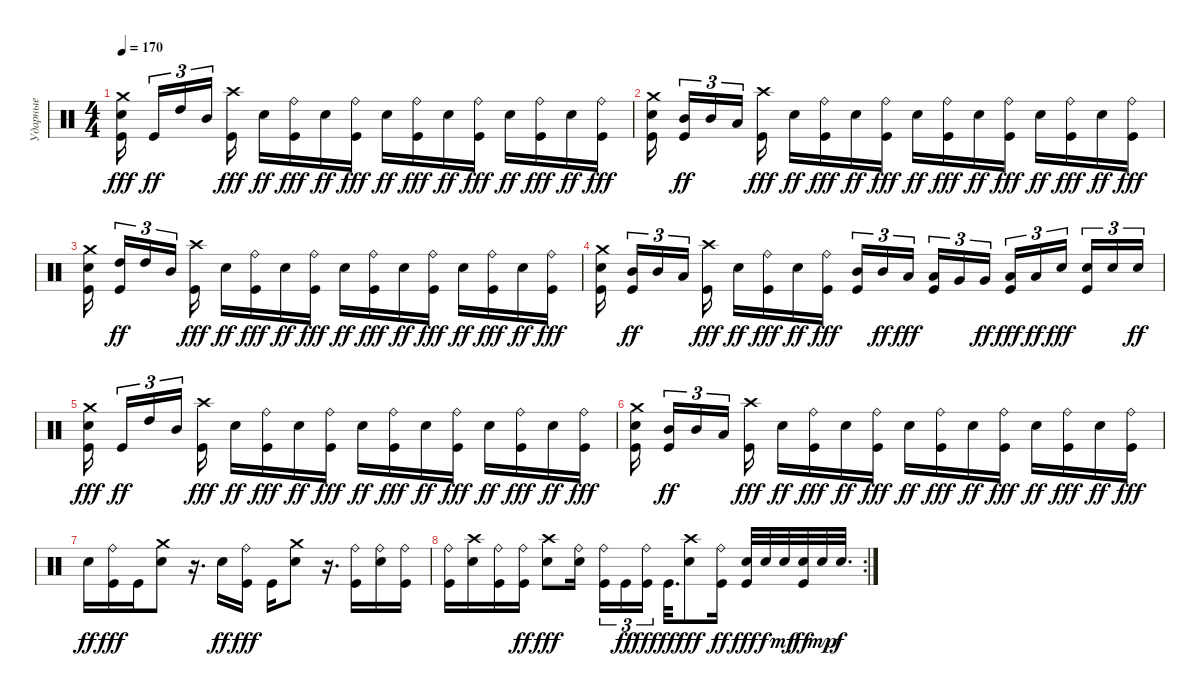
\track ("Ударные" "Ударные") {instrument percussion}
\staff {score}
\articulation defaults
\ts (4 4)
\tempo 170
\clef neutral
\ks c
("Crash medium (hit)" "Electric Snare (hit)" "Kick (hit)").16{dy fff beam splitsecondary} "Kick (hit)".16{tu (3 2) dy ff} "High Tom (hit)".16{tu (3 2)} "Mid Tom (hit)".16{tu (3 2) beam splitsecondary} ("Crash high (hit)" "Kick (hit)").16{dy fff} "Electric Snare (hit)".16{dy ff} ("Ride (bell)" "Kick (hit)").16{dy fff} "Electric Snare (hit)".16{dy ff} ("Ride (bell)" "Kick (hit)").16{dy fff} "Electric Snare (hit)".16{dy ff} ("Ride (bell)" "Kick (hit)").16{dy fff} "Electric Snare (hit)".16{dy ff} ("Ride (bell)" "Kick (hit)").16{dy fff} "Electric Snare (hit)".16{dy ff} ("Ride (bell)" "Kick (hit)").16{dy fff} "Electric Snare (hit)".16{dy ff} ("Ride (bell)" "Kick (hit)").16{dy fff} |
("Crash medium (hit)" "Electric Snare (hit)" "Kick (hit)").16{beam splitsecondary} ("Mid Tom (hit)" "Kick (hit)").16{tu (3 2) dy ff} "Mid Tom (hit)".16{tu (3 2)} "Low Tom (hit)".16{tu (3 2) beam splitsecondary} ("Crash high (hit)" "Kick (hit)").16{dy fff} "Electric Snare (hit)".16{dy ff} ("Ride (bell)" "Kick (hit)").16{dy fff} "Electric Snare (hit)".16{dy ff} ("Ride (bell)" "Kick (hit)").16{dy fff} "Electric Snare (hit)".16{dy ff} ("Ride (bell)" "Kick (hit)").16{dy fff} "Electric Snare (hit)".16{dy ff} ("Ride (bell)" "Kick (hit)").16{dy fff} "Electric Snare (hit)".16{dy ff} ("Ride (bell)" "Kick (hit)").16{dy fff} "Electric Snare (hit)".16{dy ff} ("Ride (bell)" "Kick (hit)").16{dy fff} |
("Crash medium (hit)" "Electric Snare (hit)" "Kick (hit)").16{beam splitsecondary} ("High Tom (hit)" "Kick (hit)").16{tu (3 2) dy ff} "High Tom (hit)".16{tu (3 2)} "Mid Tom (hit)".16{tu (3 2) beam splitsecondary} ("Crash high (hit)" "Kick (hit)").16{dy fff} "Electric Snare (hit)".16{dy ff} ("Ride (bell)" "Kick (hit)").16{dy fff} "Electric Snare (hit)".16{dy ff} ("Ride (bell)" "Kick (hit)").16{dy fff} "Electric Snare (hit)".16{dy ff} ("Ride (bell)" "Kick (hit)").16{dy fff} "Electric Snare (hit)".16{dy ff} ("Ride (bell)" "Kick (hit)").16{dy fff} "Electric Snare (hit)".16{dy ff} ("Ride (bell)" "Kick (hit)").16{dy fff} "Electric Snare (hit)".16{dy ff} ("Ride (bell)" "Kick (hit)").16{dy fff} |
("Crash medium (hit)" "Electric Snare (hit)" "Kick (hit)").16{beam splitsecondary} ("Mid Tom (hit)" "Kick (hit)").16{tu (3 2) dy ff} "Mid Tom (hit)".16{tu (3 2)} "Low Tom (hit)".16{tu (3 2) beam splitsecondary} ("Crash high (hit)" "Kick (hit)").16{dy fff} "Electric Snare (hit)".16{dy ff} ("Ride (bell)" "Kick (hit)").16{dy fff} "Electric Snare (hit)".16{dy ff} ("Ride (bell)" "Kick (hit)").16{dy fff} ("Mid Tom (hit)" "Kick (hit)").16{tu (3 2)} "Mid Tom (hit)".16{tu (3 2) dy ff} "Low Tom (hit)".16{tu (3 2) dy fff beam splitsecondary} ("Low Tom (hit)" "Kick (hit)").16{tu (3 2)} "Very Low Tom (hit)".16{tu (3 2)} "Very Low Tom (hit)".16{tu (3 2) dy ff} ("Low Floor Tom (hit)" "Kick (hit)").16{tu (3 2) dy fff} "Low Floor Tom (hit)".16{tu (3 2) dy ff} "Electric Snare (hit)".16{tu (3 2) dy fff beam splitsecondary} ("Electric Snare (hit)" "Kick (hit)").16{tu (3 2)} "Electric Snare (hit)".16{tu (3 2)} "Electric Snare (hit)".16{tu (3 2) dy ff} |
("Crash medium (hit)" "Electric Snare (hit)" "Kick (hit)").16{dy fff beam splitsecondary} "Kick (hit)".16{tu (3 2) dy ff} "High Tom (hit)".16{tu (3 2)} "Mid Tom (hit)".16{tu (3 2) beam splitsecondary} ("Crash high (hit)" "Kick (hit)").16{dy fff} "Electric Snare (hit)".16{dy ff} ("Ride (bell)" "Kick (hit)").16{dy fff} "Electric Snare (hit)".16{dy ff} ("Ride (bell)" "Kick (hit)").16{dy fff} "Electric Snare (hit)".16{dy ff} ("Ride (bell)" "Kick (hit)").16{dy fff} "Electric Snare (hit)".16{dy ff} ("Ride (bell)" "Kick (hit)").16{dy fff} "Electric Snare (hit)".16{dy ff} ("Ride (bell)" "Kick (hit)").16{dy fff} "Electric Snare (hit)".16{dy ff} ("Ride (bell)" "Kick (hit)").16{dy fff} |
("Crash medium (hit)" "Electric Snare (hit)" "Kick (hit)").16{beam splitsecondary} ("Mid Tom (hit)" "Kick (hit)").16{tu (3 2) dy ff} "Mid Tom (hit)".16{tu (3 2)} "Low Tom (hit)".16{tu (3 2) beam splitsecondary} ("Crash high (hit)" "Kick (hit)").16{dy fff} "Electric Snare (hit)".16{dy ff} ("Ride (bell)" "Kick (hit)").16{dy fff} "Electric Snare (hit)".16{dy ff} ("Ride (bell)" "Kick (hit)").16{dy fff} "Electric Snare (hit)".16{dy ff} ("Ride (bell)" "Kick (hit)").16{dy fff} "Electric Snare (hit)".16{dy ff} ("Ride (bell)" "Kick (hit)").16{dy fff} "Electric Snare (hit)".16{dy ff} ("Ride (bell)" "Kick (hit)").16{dy fff} "Electric Snare (hit)".16{dy ff} ("Ride (bell)" "Kick (hit)").16{dy fff} |
"Electric Snare (hit)".16{dy ff} ("Ride (bell)" "Kick (hit)").16{dy fff} "Kick (hit)".16 ("Crash medium (hit)" "Electric Snare (hit)").8 r.16{d} "Electric Snare (hit)".16{dy ff} ("Ride (bell)" "Kick (hit)").16{dy fff} "Kick (hit)".16 ("Crash medium (hit)" "Electric Snare (hit)").8 r.16{d} ("Ride (bell)" "Kick (hit)").16 ("Ride (bell)" "Electric Snare (hit)").16 ("Ride (bell)" "Kick (hit)").16 |
\rc 2
("Ride (bell)" "Kick (hit)").16 ("Crash high (hit)" "Electric Snare (hit)").16 ("Ride (bell)" "Kick (hit)").16 ("Ride (bell)" "Kick (hit)").16{dy ff} ("Crash high (hit)" "Electric Snare (hit)").8{dy fff} ("Ride (bell)" "Electric Snare (hit)").16{beam splitsecondary} ("Ride (bell)" "Kick (hit)").16{tu (3 2)} "Kick (hit)".16{tu (3 2) dy ff} ("Ride (bell)" "Kick (hit)").16{tu (3 2) dy fff beam splitsecondary} "Kick (hit)".32{d dy ff} ("Crash high (hit)" "Electric Snare (hit)").8{dy fff} ("Ride (bell)" "Kick (hit)").16{dy ff} ("Electric Snare (hit)" "Kick (hit)").32{dy fff} "Electric Snare (hit)".32{dy f} "Electric Snare (hit)".32{dy mf} ("Electric Snare (hit)" "Kick (hit)").32{dy ff} "Electric Snare (hit)".32{dy mp} "Electric Snare (hit)".32{d dy f}
